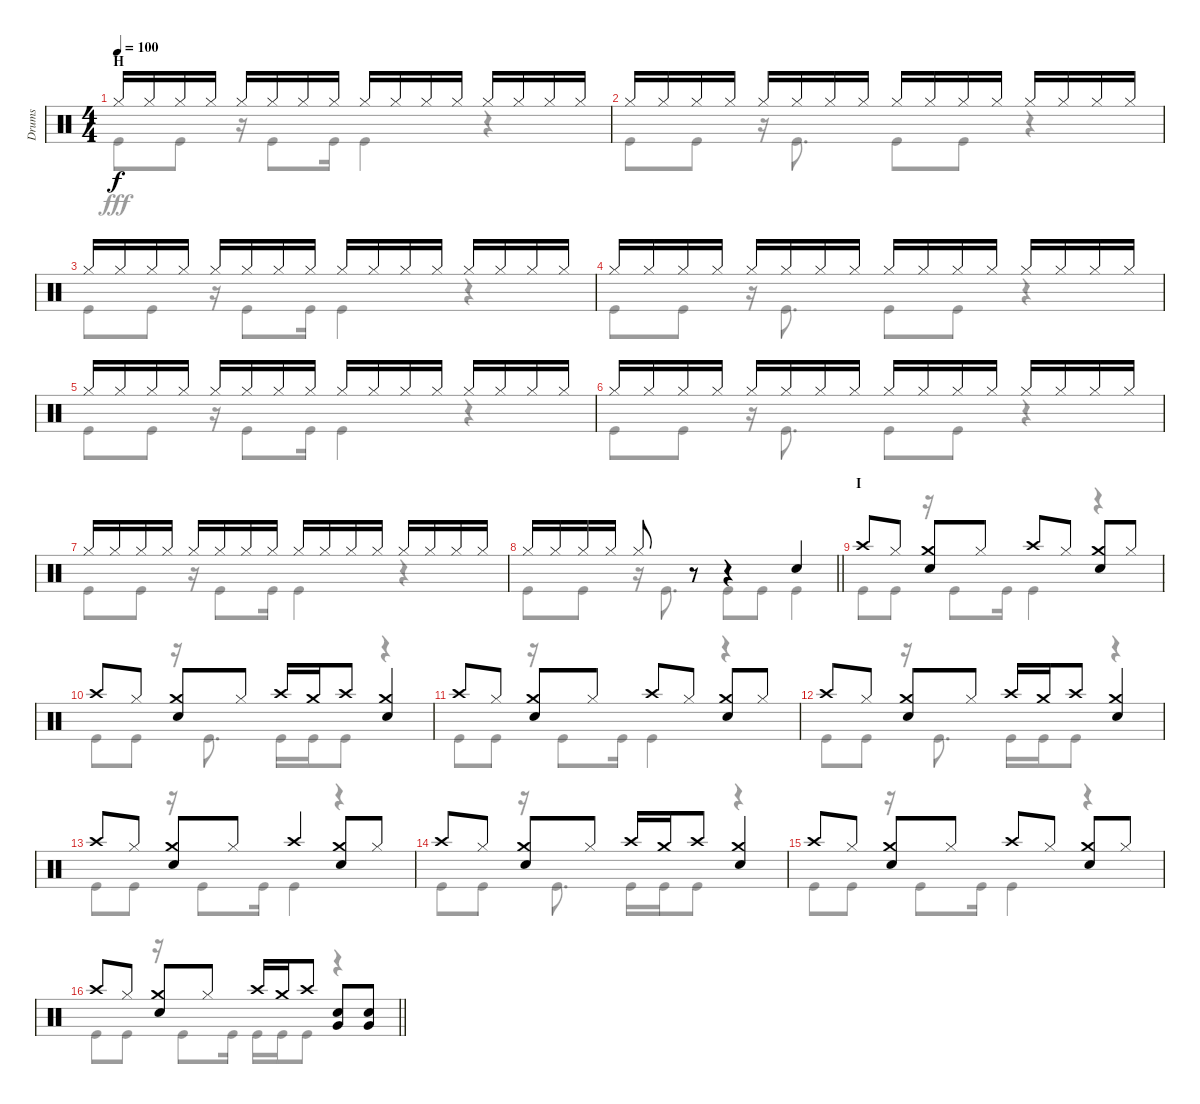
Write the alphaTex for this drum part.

\track ("Drums" "Drums") {instrument percussion}
\staff {score}
\articulation defaults
\voice
\ts (4 4)
\section ("" "H")
\tempo 100
\clef neutral
\ks c "Hi-Hat (closed)".16{dy f} "Hi-Hat (closed)".16 "Hi-Hat (closed)".16 "Hi-Hat (closed)".16 "Hi-Hat (closed)".16 "Hi-Hat (closed)".16 "Hi-Hat (closed)".16 "Hi-Hat (closed)".16 "Hi-Hat (closed)".16 "Hi-Hat (closed)".16 "Hi-Hat (closed)".16 "Hi-Hat (closed)".16 "Hi-Hat (closed)".16 "Hi-Hat (closed)".16 "Hi-Hat (closed)".16 "Hi-Hat (closed)".16
|
"Hi-Hat (closed)".16 "Hi-Hat (closed)".16 "Hi-Hat (closed)".16 "Hi-Hat (closed)".16 "Hi-Hat (closed)".16 "Hi-Hat (closed)".16 "Hi-Hat (closed)".16 "Hi-Hat (closed)".16 "Hi-Hat (closed)".16 "Hi-Hat (closed)".16 "Hi-Hat (closed)".16 "Hi-Hat (closed)".16 "Hi-Hat (closed)".16 "Hi-Hat (closed)".16 "Hi-Hat (closed)".16 "Hi-Hat (closed)".16 |
"Hi-Hat (closed)".16 "Hi-Hat (closed)".16 "Hi-Hat (closed)".16 "Hi-Hat (closed)".16 "Hi-Hat (closed)".16 "Hi-Hat (closed)".16 "Hi-Hat (closed)".16 "Hi-Hat (closed)".16 "Hi-Hat (closed)".16 "Hi-Hat (closed)".16 "Hi-Hat (closed)".16 "Hi-Hat (closed)".16 "Hi-Hat (closed)".16 "Hi-Hat (closed)".16 "Hi-Hat (closed)".16 "Hi-Hat (closed)".16 |
"Hi-Hat (closed)".16 "Hi-Hat (closed)".16 "Hi-Hat (closed)".16 "Hi-Hat (closed)".16 "Hi-Hat (closed)".16 "Hi-Hat (closed)".16 "Hi-Hat (closed)".16 "Hi-Hat (closed)".16 "Hi-Hat (closed)".16 "Hi-Hat (closed)".16 "Hi-Hat (closed)".16 "Hi-Hat (closed)".16 "Hi-Hat (closed)".16 "Hi-Hat (closed)".16 "Hi-Hat (closed)".16 "Hi-Hat (closed)".16 |
"Hi-Hat (closed)".16 "Hi-Hat (closed)".16 "Hi-Hat (closed)".16 "Hi-Hat (closed)".16 "Hi-Hat (closed)".16 "Hi-Hat (closed)".16 "Hi-Hat (closed)".16 "Hi-Hat (closed)".16 "Hi-Hat (closed)".16 "Hi-Hat (closed)".16 "Hi-Hat (closed)".16 "Hi-Hat (closed)".16 "Hi-Hat (closed)".16 "Hi-Hat (closed)".16 "Hi-Hat (closed)".16 "Hi-Hat (closed)".16 |
"Hi-Hat (closed)".16 "Hi-Hat (closed)".16 "Hi-Hat (closed)".16 "Hi-Hat (closed)".16 "Hi-Hat (closed)".16 "Hi-Hat (closed)".16 "Hi-Hat (closed)".16 "Hi-Hat (closed)".16 "Hi-Hat (closed)".16 "Hi-Hat (closed)".16 "Hi-Hat (closed)".16 "Hi-Hat (closed)".16 "Hi-Hat (closed)".16 "Hi-Hat (closed)".16 "Hi-Hat (closed)".16 "Hi-Hat (closed)".16 |
"Hi-Hat (closed)".16 "Hi-Hat (closed)".16 "Hi-Hat (closed)".16 "Hi-Hat (closed)".16 "Hi-Hat (closed)".16 "Hi-Hat (closed)".16 "Hi-Hat (closed)".16 "Hi-Hat (closed)".16 "Hi-Hat (closed)".16 "Hi-Hat (closed)".16 "Hi-Hat (closed)".16 "Hi-Hat (closed)".16 "Hi-Hat (closed)".16 "Hi-Hat (closed)".16 "Hi-Hat (closed)".16 "Hi-Hat (closed)".16 |
\barLineRight lightlight "Hi-Hat (closed)".16 "Hi-Hat (closed)".16 "Hi-Hat (closed)".16 "Hi-Hat (closed)".16 "Hi-Hat (closed)".8
r.8 r.4 "Snare (hit) 2".4 |
\section ("" "I")
"Crash high (hit)".8 "Hi-Hat (closed)".8 ("Crash medium (hit)" "Snare (hit) 2").8 "Hi-Hat (closed)".8 "Crash high (hit)".8 "Hi-Hat (closed)".8 ("Crash medium (hit)" "Snare (hit) 2").8 "Hi-Hat (closed)".8 |
"Crash high (hit)".8 "Hi-Hat (closed)".8 ("Crash medium (hit)" "Snare (hit) 2").8 "Hi-Hat (closed)".8 "Crash high (hit)".16 "Crash medium (hit)".16 "Crash high (hit)".8 ("Crash medium (hit)" "Snare (hit) 2").4 |
"Crash high (hit)".8 "Hi-Hat (closed)".8 ("Crash medium (hit)" "Snare (hit) 2").8 "Hi-Hat (closed)".8 "Crash high (hit)".8 "Hi-Hat (closed)".8 ("Crash medium (hit)" "Snare (hit) 2").8 "Hi-Hat (closed)".8 |
"Crash high (hit)".8 "Hi-Hat (closed)".8 ("Crash medium (hit)" "Snare (hit) 2").8 "Hi-Hat (closed)".8 "Crash high (hit)".16 "Crash medium (hit)".16 "Crash high (hit)".8 ("Crash medium (hit)" "Snare (hit) 2").4 |
"Crash high (hit)".8 "Hi-Hat (closed)".8 ("Crash medium (hit)" "Snare (hit) 2").8 "Hi-Hat (closed)".8 "Crash high (hit)".4 ("Crash medium (hit)" "Snare (hit) 2").8 "Hi-Hat (closed)".8 |
"Crash high (hit)".8 "Hi-Hat (closed)".8 ("Crash medium (hit)" "Snare (hit) 2").8 "Hi-Hat (closed)".8 "Crash high (hit)".16 "Crash medium (hit)".16 "Crash high (hit)".8 ("Crash medium (hit)" "Snare (hit) 2").4 |
"Crash high (hit)".8 "Hi-Hat (closed)".8 ("Crash medium (hit)" "Snare (hit) 2").8 "Hi-Hat (closed)".8 "Crash high (hit)".8 "Hi-Hat (closed)".8 ("Crash medium (hit)" "Snare (hit) 2").8 "Hi-Hat (closed)".8 |
\barLineRight lightlight "Crash high (hit)".8 "Hi-Hat (closed)".8
("Crash medium (hit)" "Snare (hit) 2").8 "Hi-Hat (closed)".8 "Crash high (hit)".16 "Crash medium (hit)".16 "Crash high (hit)".8 ("Snare (hit) 2" "Very Low Tom (hit)").8 ("Snare (hit) 2" "Very Low Tom (hit)").8
\voice
\clef neutral
\ottava regular
\simile none
\ks c "Kick (hit)".8{dy fff} "Kick (hit)".8
r.16 "Kick (hit)".8 "Kick (hit)".16 "Kick (hit)".4 r.4 |
"Kick (hit)".8 "Kick (hit)".8 r.16 "Kick (hit)".8{d} "Kick (hit)".8 "Kick (hit)".8 r.4 |
"Kick (hit)".8 "Kick (hit)".8 r.16 "Kick (hit)".8 "Kick (hit)".16 "Kick (hit)".4 r.4 |
"Kick (hit)".8 "Kick (hit)".8 r.16 "Kick (hit)".8{d} "Kick (hit)".8 "Kick (hit)".8 r.4 |
"Kick (hit)".8 "Kick (hit)".8 r.16 "Kick (hit)".8 "Kick (hit)".16 "Kick (hit)".4 r.4 |
"Kick (hit)".8 "Kick (hit)".8 r.16 "Kick (hit)".8{d} "Kick (hit)".8 "Kick (hit)".8 r.4 |
"Kick (hit)".8 "Kick (hit)".8 r.16 "Kick (hit)".8 "Kick (hit)".16 "Kick (hit)".4 r.4 |
\barLineRight lightlight "Kick (hit)".8 "Kick (hit)".8
r.16 "Kick (hit)".8{d} "Kick (hit)".8 "Kick (hit)".8 "Kick (hit)".4 |
"Kick (hit)".8 "Kick (hit)".8 r.16 "Kick (hit)".8 "Kick (hit)".16 "Kick (hit)".4 r.4 |
"Kick (hit)".8 "Kick (hit)".8 r.16 "Kick (hit)".8{d} "Kick (hit)".16 "Kick (hit)".16 "Kick (hit)".8 r.4 |
"Kick (hit)".8 "Kick (hit)".8 r.16 "Kick (hit)".8 "Kick (hit)".16 "Kick (hit)".4 r.4 |
"Kick (hit)".8 "Kick (hit)".8 r.16 "Kick (hit)".8{d} "Kick (hit)".16 "Kick (hit)".16 "Kick (hit)".8 r.4 |
"Kick (hit)".8 "Kick (hit)".8 r.16 "Kick (hit)".8 "Kick (hit)".16 "Kick (hit)".4 r.4 |
"Kick (hit)".8 "Kick (hit)".8 r.16 "Kick (hit)".8{d} "Kick (hit)".16 "Kick (hit)".16 "Kick (hit)".8 r.4 |
"Kick (hit)".8 "Kick (hit)".8 r.16 "Kick (hit)".8 "Kick (hit)".16 "Kick (hit)".4 r.4 |
\barLineRight lightlight "Kick (hit)".8 "Kick (hit)".8
r.16 "Kick (hit)".8 "Kick (hit)".16 "Kick (hit)".16 "Kick (hit)".16 "Kick (hit)".8 r.4
